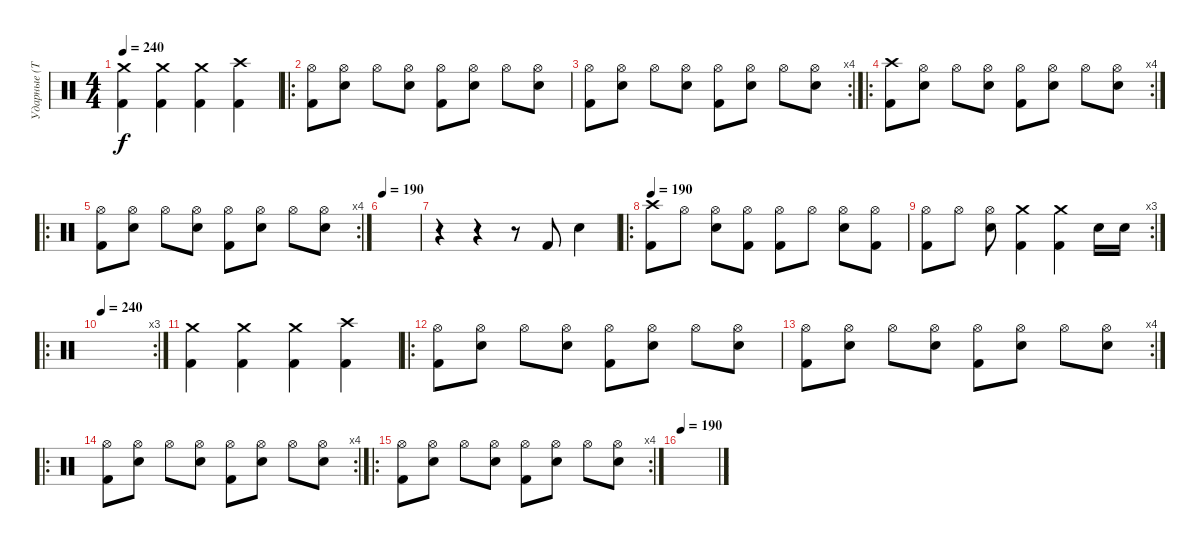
\track ("Ударные (Тьодальв)" "Ударные (Т") {instrument percussion}
\staff {score}
\articulation defaults
\ts (4 4)
\tempo 240
\clef neutral
\ks c
("Crash medium (hit)" "Kick (hit) 2").4{dy f} ("Crash medium (hit)" "Kick (hit) 2").4 ("Crash medium (hit)" "Kick (hit) 2").4 ("Crash high (hit)" "Kick (hit) 2").4 |
\ro
("Hi-Hat (open)" "Kick (hit) 2").8 ("Hi-Hat (open)" "Snare (hit) 2").8 "Hi-Hat (open)".8 ("Hi-Hat (open)" "Snare (hit) 2").8 ("Hi-Hat (open)" "Kick (hit) 2").8 ("Hi-Hat (open)" "Snare (hit) 2").8 "Hi-Hat (open)".8 ("Hi-Hat (open)" "Snare (hit) 2").8 |
\rc 4
("Hi-Hat (open)" "Kick (hit) 2").8 ("Hi-Hat (open)" "Snare (hit) 2").8 "Hi-Hat (open)".8 ("Hi-Hat (open)" "Snare (hit) 2").8 ("Hi-Hat (open)" "Kick (hit) 2").8 ("Hi-Hat (open)" "Snare (hit) 2").8 "Hi-Hat (open)".8 ("Hi-Hat (open)" "Snare (hit) 2").8 |
\ro
\rc 4
("Crash high (hit)" "Kick (hit) 2").8 ("Hi-Hat (open)" "Snare (hit) 2").8 "Hi-Hat (open)".8 ("Hi-Hat (open)" "Snare (hit) 2").8 ("Hi-Hat (open)" "Kick (hit) 2").8 ("Hi-Hat (open)" "Snare (hit) 2").8 "Hi-Hat (open)".8 ("Hi-Hat (open)" "Snare (hit) 2").8 |
\ro
\rc 4
("Hi-Hat (open)" "Kick (hit) 2").8 ("Hi-Hat (open)" "Snare (hit) 2").8 "Hi-Hat (open)".8 ("Hi-Hat (open)" "Snare (hit) 2").8 ("Hi-Hat (open)" "Kick (hit) 2").8 ("Hi-Hat (open)" "Snare (hit) 2").8 "Hi-Hat (open)".8 ("Hi-Hat (open)" "Snare (hit) 2").8 |
\tempo 190
|
r.4 r.4 r.8 "Kick (hit) 2".8 "Snare (hit) 2".4 |
\ro
\tempo 190
("Crash high (hit)" "Kick (hit) 2").8 "Hi-Hat (open)".8 ("Hi-Hat (open)" "Snare (hit) 2").8 ("Hi-Hat (open)" "Kick (hit) 2").8 ("Hi-Hat (open)" "Kick (hit) 2").8 "Hi-Hat (open)".8 ("Hi-Hat (open)" "Snare (hit) 2").8 ("Hi-Hat (open)" "Kick (hit) 2").8 |
\rc 3
("Hi-Hat (open)" "Kick (hit) 2").8 "Hi-Hat (open)".8 ("Hi-Hat (open)" "Snare (hit) 2").8 ("Crash medium (hit)" "Kick (hit) 2").4 ("Crash medium (hit)" "Kick (hit) 2").4 "Snare (hit) 2".16 "Snare (hit) 2".16 |
\ro
\rc 3
\tempo 240
|
("Crash medium (hit)" "Kick (hit) 2").4 ("Crash medium (hit)" "Kick (hit) 2").4 ("Crash medium (hit)" "Kick (hit) 2").4 ("Crash high (hit)" "Kick (hit) 2").4 |
\ro
("Hi-Hat (open)" "Kick (hit) 2").8 ("Hi-Hat (open)" "Snare (hit) 2").8 "Hi-Hat (open)".8 ("Hi-Hat (open)" "Snare (hit) 2").8 ("Hi-Hat (open)" "Kick (hit) 2").8 ("Hi-Hat (open)" "Snare (hit) 2").8 "Hi-Hat (open)".8 ("Hi-Hat (open)" "Snare (hit) 2").8 |
\rc 4
("Hi-Hat (open)" "Kick (hit) 2").8 ("Hi-Hat (open)" "Snare (hit) 2").8 "Hi-Hat (open)".8 ("Hi-Hat (open)" "Snare (hit) 2").8 ("Hi-Hat (open)" "Kick (hit) 2").8 ("Hi-Hat (open)" "Snare (hit) 2").8 "Hi-Hat (open)".8 ("Hi-Hat (open)" "Snare (hit) 2").8 |
\ro
\rc 4
("Hi-Hat (open)" "Kick (hit) 2").8 ("Hi-Hat (open)" "Snare (hit) 2").8 "Hi-Hat (open)".8 ("Hi-Hat (open)" "Snare (hit) 2").8 ("Hi-Hat (open)" "Kick (hit) 2").8 ("Hi-Hat (open)" "Snare (hit) 2").8 "Hi-Hat (open)".8 ("Hi-Hat (open)" "Snare (hit) 2").8 |
\ro
\rc 4
("Hi-Hat (open)" "Kick (hit) 2").8 ("Hi-Hat (open)" "Snare (hit) 2").8 "Hi-Hat (open)".8 ("Hi-Hat (open)" "Snare (hit) 2").8 ("Hi-Hat (open)" "Kick (hit) 2").8 ("Hi-Hat (open)" "Snare (hit) 2").8 "Hi-Hat (open)".8 ("Hi-Hat (open)" "Snare (hit) 2").8 |
\tempo 190
